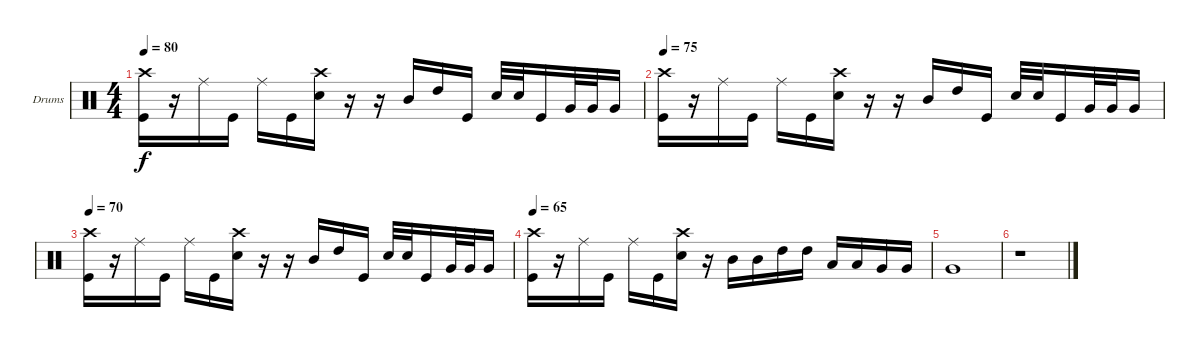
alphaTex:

\bracketExtendMode groupsimilarinstruments
\firstSystemTrackNameOrientation horizontal
\otherSystemsTrackNameOrientation horizontal
\track ("Drumkit" "Drums") {instrument percussion}
\staff {score}
\articulation defaults
\ts (4 4)
\tempo 80
\clef neutral
\ks c
("Crash high (hit)" "Kick (hit)").16{dy f} r.16 "Ride (middle)".16 "Kick (hit)".16 "Ride (middle)".16 "Kick (hit)".16 ("Crash high (hit)" "Snare (hit) 2").16 r.16 r.16 "Mid Tom (hit)".16 "High Tom (hit)".16 "Kick (hit)".16 "Snare (hit) 2".32 "Snare (hit) 2".32 "Kick (hit)".16 "Very Low Tom (hit)".32 "Very Low Tom (hit)".32 "Very Low Tom (hit)".16 |
\tempo 75
("Crash high (hit)" "Kick (hit)").16 r.16 "Ride (middle)".16 "Kick (hit)".16 "Ride (middle)".16 "Kick (hit)".16 ("Crash high (hit)" "Snare (hit) 2").16 r.16 r.16 "Mid Tom (hit)".16 "High Tom (hit)".16 "Kick (hit)".16 "Snare (hit) 2".32 "Snare (hit) 2".32 "Kick (hit)".16 "Very Low Tom (hit)".32 "Very Low Tom (hit)".32 "Very Low Tom (hit)".16 |
\tempo 70
("Crash high (hit)" "Kick (hit)").16 r.16 "Ride (middle)".16 "Kick (hit)".16 "Ride (middle)".16 "Kick (hit)".16 ("Crash high (hit)" "Snare (hit) 2").16 r.16 r.16 "Mid Tom (hit)".16 "High Tom (hit)".16 "Kick (hit)".16 "Snare (hit) 2".32 "Snare (hit) 2".32 "Kick (hit)".16 "Very Low Tom (hit)".32 "Very Low Tom (hit)".32 "Very Low Tom (hit)".16 |
\tempo 65
("Crash high (hit)" "Kick (hit)").16 r.16 "Ride (middle)".16 "Kick (hit)".16 "Ride (middle)".16 "Kick (hit)".16 ("Crash high (hit)" "Snare (hit) 2").16 r.16 "Mid Tom (hit)".16 "Mid Tom (hit)".16 "High Tom (hit)".16 "High Tom (hit)".16 "Low Tom (hit)".16 "Low Tom (hit)".16 "Very Low Tom (hit)".16 "Very Low Tom (hit)".16 |
"Very Low Tom (hit)".1 |
r.1
